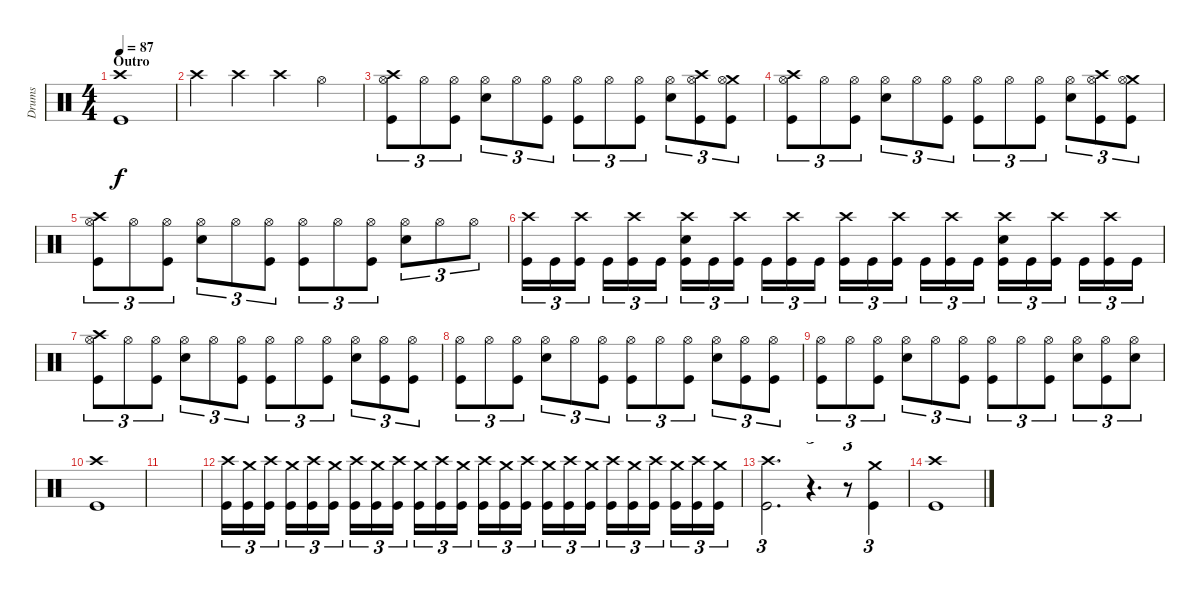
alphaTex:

\track ("Drums" "Drums") {instrument percussion}
\staff {score}
\articulation defaults
\ts (4 4)
\section ("" "Outro")
\tempo 87
\clef neutral
\ks c
("Crash high (hit)" "Kick (hit)").1{dy f} |
"Crash high (hit)".4 "Crash high (hit)".4 "Crash high (hit)".4 "Hi-Hat (open)".4 |
("Crash high (hit)" "Hi-Hat (open)" "Kick (hit)").8{tu (3 2)} "Hi-Hat (open)".8{tu (3 2)} ("Hi-Hat (open)" "Kick (hit)").8{tu (3 2)} ("Hi-Hat (open)" "Snare (hit) 2").8{tu (3 2)} "Hi-Hat (open)".8{tu (3 2)} ("Hi-Hat (open)" "Kick (hit)").8{tu (3 2)} ("Hi-Hat (open)" "Kick (hit)").8{tu (3 2)} "Hi-Hat (open)".8{tu (3 2)} ("Hi-Hat (open)" "Kick (hit)").8{tu (3 2)} ("Hi-Hat (open)" "Snare (hit) 2").8{tu (3 2)} ("Crash high (hit)" "Hi-Hat (open)" "Kick (hit)").8{tu (3 2)} ("Crash medium (hit)" "Hi-Hat (open)" "Kick (hit)").8{tu (3 2)} |
("Crash high (hit)" "Hi-Hat (open)" "Kick (hit)").8{tu (3 2)} "Hi-Hat (open)".8{tu (3 2)} ("Hi-Hat (open)" "Kick (hit)").8{tu (3 2)} ("Hi-Hat (open)" "Snare (hit) 2").8{tu (3 2)} "Hi-Hat (open)".8{tu (3 2)} ("Hi-Hat (open)" "Kick (hit)").8{tu (3 2)} ("Hi-Hat (open)" "Kick (hit)").8{tu (3 2)} "Hi-Hat (open)".8{tu (3 2)} ("Hi-Hat (open)" "Kick (hit)").8{tu (3 2)} ("Hi-Hat (open)" "Snare (hit) 2").8{tu (3 2)} ("Crash high (hit)" "Hi-Hat (open)" "Kick (hit)").8{tu (3 2)} ("Crash medium (hit)" "Hi-Hat (open)" "Kick (hit)").8{tu (3 2)} |
("Crash high (hit)" "Hi-Hat (open)" "Kick (hit)").8{tu (3 2)} "Hi-Hat (open)".8{tu (3 2)} ("Hi-Hat (open)" "Kick (hit)").8{tu (3 2)} ("Hi-Hat (open)" "Snare (hit) 2").8{tu (3 2)} "Hi-Hat (open)".8{tu (3 2)} ("Hi-Hat (open)" "Kick (hit)").8{tu (3 2)} ("Hi-Hat (open)" "Kick (hit)").8{tu (3 2)} "Hi-Hat (open)".8{tu (3 2)} ("Hi-Hat (open)" "Kick (hit)").8{tu (3 2)} ("Hi-Hat (open)" "Snare (hit) 2").8{tu (3 2)} "Hi-Hat (open)".8{tu (3 2)} "Hi-Hat (open)".8{tu (3 2)} |
("Crash high (hit)" "Kick (hit)").16{tu (3 2)} "Kick (hit)".16{tu (3 2)} ("Crash high (hit)" "Kick (hit)").16{tu (3 2) beam splitsecondary} "Kick (hit)".16{tu (3 2)} ("Crash high (hit)" "Kick (hit)").16{tu (3 2)} "Kick (hit)".16{tu (3 2)} ("Crash high (hit)" "Snare (hit) 2" "Kick (hit)").16{tu (3 2)} "Kick (hit)".16{tu (3 2)} ("Crash high (hit)" "Kick (hit)").16{tu (3 2) beam splitsecondary} "Kick (hit)".16{tu (3 2)} ("Crash high (hit)" "Kick (hit)").16{tu (3 2)} "Kick (hit)".16{tu (3 2)} ("Crash high (hit)" "Kick (hit)").16{tu (3 2)} "Kick (hit)".16{tu (3 2)} ("Crash high (hit)" "Kick (hit)").16{tu (3 2) beam splitsecondary} "Kick (hit)".16{tu (3 2)} ("Crash high (hit)" "Kick (hit)").16{tu (3 2)} "Kick (hit)".16{tu (3 2)} ("Crash high (hit)" "Snare (hit) 2" "Kick (hit)").16{tu (3 2)} "Kick (hit)".16{tu (3 2)} ("Crash high (hit)" "Kick (hit)").16{tu (3 2) beam splitsecondary} "Kick (hit)".16{tu (3 2)} ("Crash high (hit)" "Kick (hit)").16{tu (3 2)} "Kick (hit)".16{tu (3 2)} |
("Crash high (hit)" "Hi-Hat (open)" "Kick (hit)").8{tu (3 2)} "Hi-Hat (open)".8{tu (3 2)} ("Hi-Hat (open)" "Kick (hit)").8{tu (3 2)} ("Hi-Hat (open)" "Snare (hit) 2").8{tu (3 2)} "Hi-Hat (open)".8{tu (3 2)} ("Hi-Hat (open)" "Kick (hit)").8{tu (3 2)} ("Hi-Hat (open)" "Kick (hit)").8{tu (3 2)} "Hi-Hat (open)".8{tu (3 2)} ("Hi-Hat (open)" "Kick (hit)").8{tu (3 2)} ("Hi-Hat (open)" "Snare (hit) 2").8{tu (3 2)} ("Hi-Hat (open)" "Kick (hit)").8{tu (3 2)} ("Hi-Hat (open)" "Kick (hit)").8{tu (3 2)} |
("Hi-Hat (open)" "Kick (hit)").8{tu (3 2)} "Hi-Hat (open)".8{tu (3 2)} ("Hi-Hat (open)" "Kick (hit)").8{tu (3 2)} ("Hi-Hat (open)" "Snare (hit) 2").8{tu (3 2)} "Hi-Hat (open)".8{tu (3 2)} ("Hi-Hat (open)" "Kick (hit)").8{tu (3 2)} ("Hi-Hat (open)" "Kick (hit)").8{tu (3 2)} "Hi-Hat (open)".8{tu (3 2)} ("Hi-Hat (open)" "Kick (hit)").8{tu (3 2)} ("Hi-Hat (open)" "Snare (hit) 2").8{tu (3 2)} ("Hi-Hat (open)" "Kick (hit)").8{tu (3 2)} ("Hi-Hat (open)" "Kick (hit)").8{tu (3 2)} |
("Hi-Hat (open)" "Kick (hit)").8{tu (3 2)} "Hi-Hat (open)".8{tu (3 2)} ("Hi-Hat (open)" "Kick (hit)").8{tu (3 2)} ("Hi-Hat (open)" "Snare (hit) 2").8{tu (3 2)} "Hi-Hat (open)".8{tu (3 2)} ("Hi-Hat (open)" "Kick (hit)").8{tu (3 2)} ("Hi-Hat (open)" "Kick (hit)").8{tu (3 2)} "Hi-Hat (open)".8{tu (3 2)} ("Hi-Hat (open)" "Kick (hit)").8{tu (3 2)} ("Hi-Hat (open)" "Snare (hit) 2").8{tu (3 2)} ("Hi-Hat (open)" "Kick (hit)").8{tu (3 2)} ("Hi-Hat (open)" "Snare (hit) 2").8{tu (3 2)} |
("Crash high (hit)" "Kick (hit)").1 |
|
("Crash high (hit)" "Kick (hit)").16{tu (3 2)} ("Crash medium (hit)" "Kick (hit)").16{tu (3 2)} ("Crash high (hit)" "Kick (hit)").16{tu (3 2) beam splitsecondary} ("Crash medium (hit)" "Kick (hit)").16{tu (3 2)} ("Crash high (hit)" "Kick (hit)").16{tu (3 2)} ("Crash medium (hit)" "Kick (hit)").16{tu (3 2)} ("Crash high (hit)" "Kick (hit)").16{tu (3 2)} ("Crash medium (hit)" "Kick (hit)").16{tu (3 2)} ("Crash high (hit)" "Kick (hit)").16{tu (3 2) beam splitsecondary} ("Crash medium (hit)" "Kick (hit)").16{tu (3 2)} ("Crash high (hit)" "Kick (hit)").16{tu (3 2)} ("Crash medium (hit)" "Kick (hit)").16{tu (3 2)} ("Crash high (hit)" "Kick (hit)").16{tu (3 2)} ("Crash medium (hit)" "Kick (hit)").16{tu (3 2)} ("Crash high (hit)" "Kick (hit)").16{tu (3 2) beam splitsecondary} ("Crash medium (hit)" "Kick (hit)").16{tu (3 2)} ("Crash high (hit)" "Kick (hit)").16{tu (3 2)} ("Crash medium (hit)" "Kick (hit)").16{tu (3 2)} ("Crash high (hit)" "Kick (hit)").16{tu (3 2)} ("Crash medium (hit)" "Kick (hit)").16{tu (3 2)} ("Crash high (hit)" "Kick (hit)").16{tu (3 2) beam splitsecondary} ("Crash medium (hit)" "Kick (hit)").16{tu (3 2)} ("Crash high (hit)" "Kick (hit)").16{tu (3 2)} ("Crash medium (hit)" "Kick (hit)").16{tu (3 2)} |
("Crash high (hit)" "Kick (hit)").2{d tu (3 2)} r.4{d tu (3 2)} r.8{tu (3 2)} ("Crash medium (hit)" "Kick (hit)").4{tu (3 2)} |
("Crash high (hit)" "Kick (hit)").1
